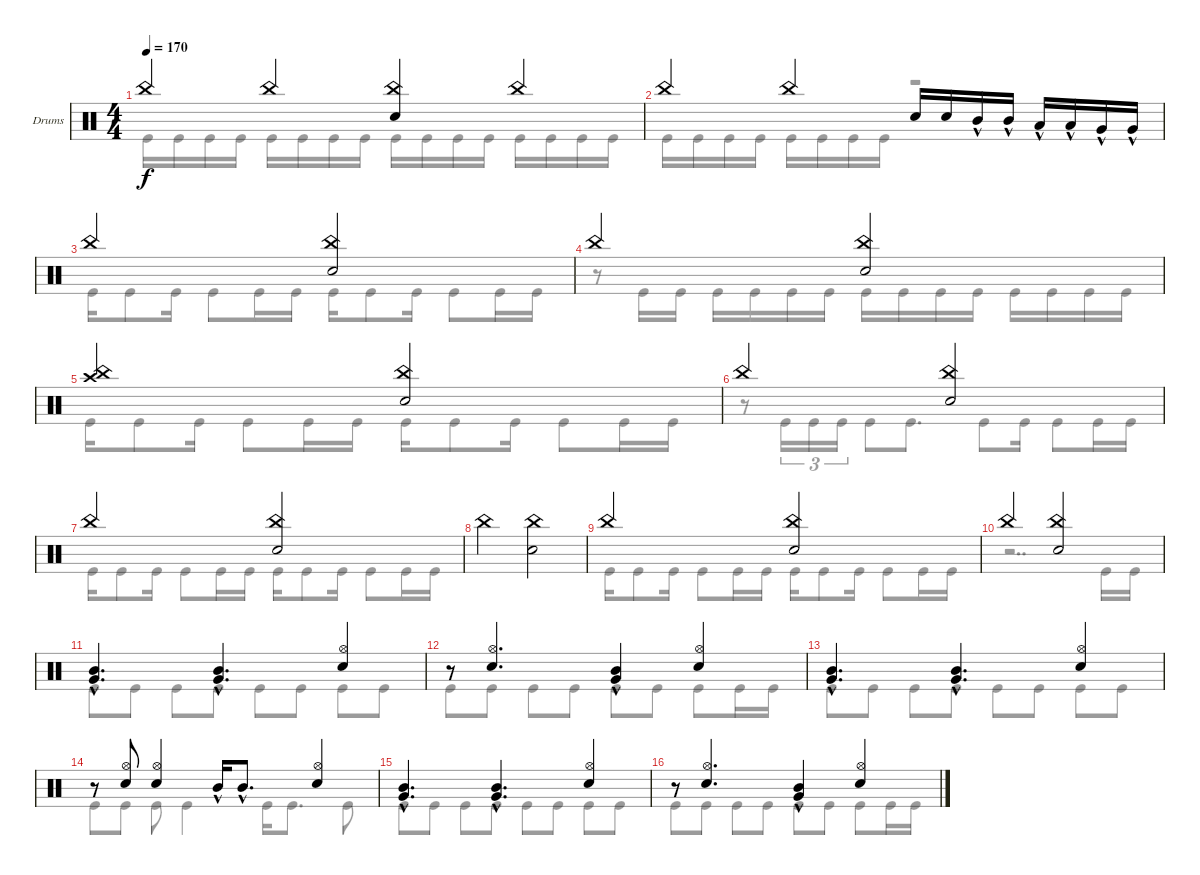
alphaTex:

\defaultSystemsLayout 4
\bracketExtendMode groupsimilarinstruments
\firstSystemTrackNameOrientation horizontal
\otherSystemsTrackNameOrientation horizontal
\track ("Drumkit" "Drums") {instrument percussion}
\staff {score}
\articulation defaults
\voice
\ts (4 4)
\tempo 170
\clef neutral
\ks c "China (hit)".4{dy f} "China (hit)".4
("China (hit)" "Snare (hit) 2").4 "China (hit)".4 |
"China (hit)".4 "China (hit)".4 "Snare (hit) 2".16 "Snare (hit) 2".16 "Mid Tom (hit)"{hac}.16 "Mid Tom (hit)"{hac}.16 "Low Tom (hit)"{hac}.16 "Low Tom (hit)"{hac}.16 "Very Low Tom (hit)"{hac}.16 "Very Low Tom (hit)"{hac}.16 |
"China (hit)".2 ("China (hit)" "Snare (hit) 2").2 |
"China (hit)".2 ("Snare (hit) 2" "China (hit)").2 |
("China (hit)" "Crash high (hit)").2 ("China (hit)" "Snare (hit) 2").2 |
"China (hit)".2 ("China (hit)" "Snare (hit) 2").2 |
"China (hit)".2 ("China (hit)" "Snare (hit) 2").2 |
"China (hit)".2 ("Snare (hit) 2" "China (hit)").2 |
"China (hit)".2 ("China (hit)" "Snare (hit) 2").2 |
"China (hit)".2 ("China (hit)" "Snare (hit) 2").2 |
("Mid Tom (hit)"{hac} "Very Low Tom (hit)"{hac}).4{d} ("Very Low Tom (hit)"{hac} "Mid Tom (hit)"{hac}).4{d} ("Snare (hit) 2" "Hi-Hat (open)").4 |
r.8 ("Hi-Hat (open)" "Snare (hit) 2").4{d} ("Mid Tom (hit)"{hac} "Very Low Tom (hit)"{hac}).4 ("Snare (hit) 2" "Hi-Hat (open)").4 |
("Mid Tom (hit)"{hac} "Very Low Tom (hit)"{hac}).4{d} ("Very Low Tom (hit)"{hac} "Mid Tom (hit)"{hac}).4{d} ("Snare (hit) 2" "Hi-Hat (open)").4 |
r.8 ("Snare (hit) 2" "Hi-Hat (open)").8 ("Hi-Hat (open)" "Snare (hit) 2").4 "Mid Tom (hit)"{hac}.16 "Mid Tom (hit)"{hac}.8{d} ("Snare (hit) 2" "Hi-Hat (open)").4 |
("Mid Tom (hit)"{hac} "Very Low Tom (hit)"{hac}).4{d} ("Very Low Tom (hit)"{hac} "Mid Tom (hit)"{hac}).4{d} ("Snare (hit) 2" "Hi-Hat (open)").4 |
r.8 ("Hi-Hat (open)" "Snare (hit) 2").4{d} ("Mid Tom (hit)"{hac} "Very Low Tom (hit)"{hac}).4 ("Snare (hit) 2" "Hi-Hat (open)").4
\voice
\clef neutral
\ottava regular
\simile none
\ks c "Kick (hit)".16{dy f} "Kick (hit)".16 "Kick (hit)".16 "Kick (hit)".16 "Kick (hit)".16 "Kick (hit)".16 "Kick (hit)".16 "Kick (hit)".16 "Kick (hit)".16 "Kick (hit)".16 "Kick (hit)".16 "Kick (hit)".16 "Kick (hit)".16 "Kick (hit)".16 "Kick (hit)".16 "Kick (hit)".16
|
"Kick (hit)".16 "Kick (hit)".16 "Kick (hit)".16 "Kick (hit)".16 "Kick (hit)".16 "Kick (hit)".16 "Kick (hit)".16 "Kick (hit)".16 r.2 |
"Kick (hit)".16 "Kick (hit)".8 "Kick (hit)".16 "Kick (hit)".8 "Kick (hit)".16 "Kick (hit)".16 "Kick (hit)".16 "Kick (hit)".8 "Kick (hit)".16 "Kick (hit)".8 "Kick (hit)".16 "Kick (hit)".16 |
r.8 "Kick (hit)".16 "Kick (hit)".16 "Kick (hit)".16 "Kick (hit)".16 "Kick (hit)".16 "Kick (hit)".16 "Kick (hit)".16 "Kick (hit)".16 "Kick (hit)".16 "Kick (hit)".16 "Kick (hit)".16 "Kick (hit)".16 "Kick (hit)".16 "Kick (hit)".16 |
"Kick (hit)".16 "Kick (hit)".8 "Kick (hit)".16 "Kick (hit)".8 "Kick (hit)".16 "Kick (hit)".16 "Kick (hit)".16 "Kick (hit)".8 "Kick (hit)".16 "Kick (hit)".8 "Kick (hit)".16 "Kick (hit)".16 |
r.8 "Kick (hit)".16{tu (3 2)} "Kick (hit)".16{tu (3 2)} "Kick (hit)".16{tu (3 2)} "Kick (hit)".8 "Kick (hit)".8{d} "Kick (hit)".8 "Kick (hit)".16 "Kick (hit)".8 "Kick (hit)".16 "Kick (hit)".16 |
"Kick (hit)".16 "Kick (hit)".8 "Kick (hit)".16 "Kick (hit)".8 "Kick (hit)".16 "Kick (hit)".16 "Kick (hit)".16 "Kick (hit)".8 "Kick (hit)".16 "Kick (hit)".8 "Kick (hit)".16 "Kick (hit)".16 |
|
"Kick (hit)".16 "Kick (hit)".8 "Kick (hit)".16 "Kick (hit)".8 "Kick (hit)".16 "Kick (hit)".16 "Kick (hit)".16 "Kick (hit)".8 "Kick (hit)".16 "Kick (hit)".8 "Kick (hit)".16 "Kick (hit)".16 |
r.2{dd} "Kick (hit)".16 "Kick (hit)".16 |
"Kick (hit)".8 "Kick (hit)".8 "Kick (hit)".8 "Kick (hit)".8 "Kick (hit)".8 "Kick (hit)".8 "Kick (hit)".8 "Kick (hit)".8 |
"Kick (hit)".8 "Kick (hit)".8 "Kick (hit)".8 "Kick (hit)".8 "Kick (hit)".8 "Kick (hit)".8 "Kick (hit)".8 "Kick (hit)".16 "Kick (hit)".16 |
"Kick (hit)".8 "Kick (hit)".8 "Kick (hit)".8 "Kick (hit)".8 "Kick (hit)".8 "Kick (hit)".8 "Kick (hit)".8 "Kick (hit)".8 |
"Kick (hit)".8 "Kick (hit)".8 "Kick (hit)".8 "Kick (hit)".4 "Kick (hit)".16 "Kick (hit)".8{d} "Kick (hit)".8 |
"Kick (hit)".8 "Kick (hit)".8 "Kick (hit)".8 "Kick (hit)".8 "Kick (hit)".8 "Kick (hit)".8 "Kick (hit)".8 "Kick (hit)".8 |
"Kick (hit)".8 "Kick (hit)".8 "Kick (hit)".8 "Kick (hit)".8 "Kick (hit)".8 "Kick (hit)".8 "Kick (hit)".8 "Kick (hit)".16 "Kick (hit)".16
